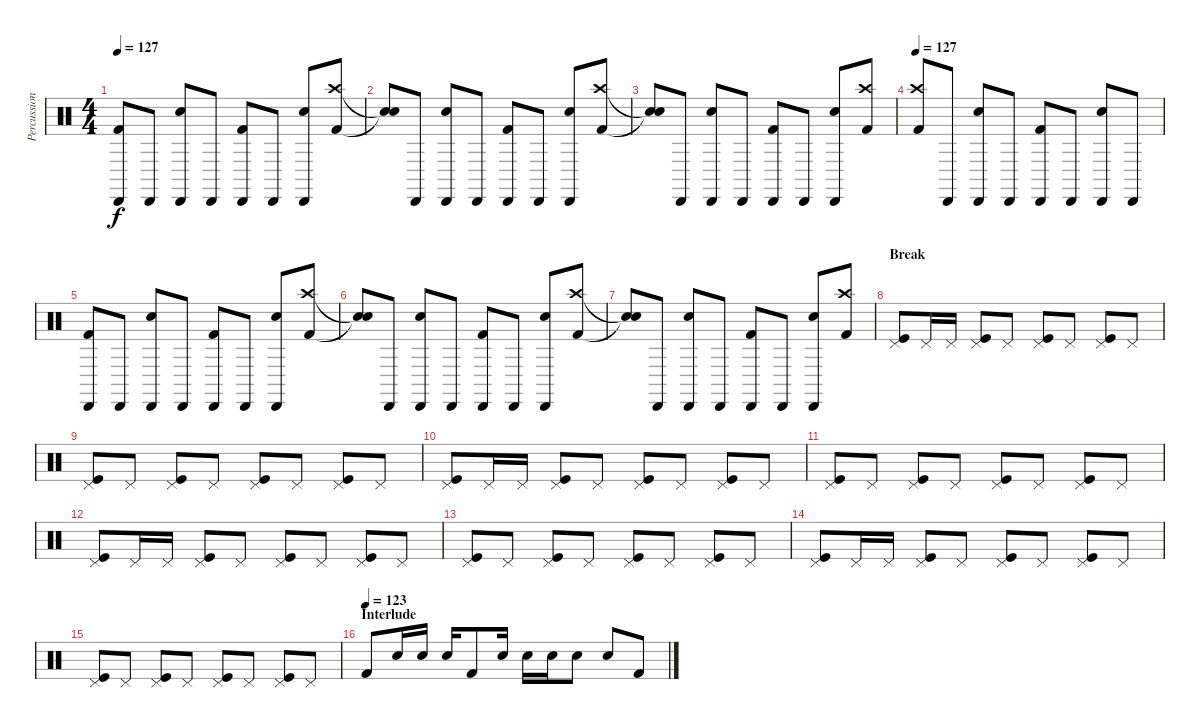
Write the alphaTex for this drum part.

\track ("Percussion" "Percussion") {instrument percussion}
\staff {score}
\articulation defaults
\ts (4 4)
\tempo 127
\clef neutral
\ks c
("Kick (hit) 2" "Cabasa (hit)").8{dy f} "Cabasa (hit)".8 ("Snare (hit) 2" "Cabasa (hit)").8 "Cabasa (hit)".8 ("Kick (hit) 2" "Cabasa (hit)").8 "Cabasa (hit)".8 ("Snare (hit) 2" "Cabasa (hit)").8 ("Kick (hit) 2" "Crash high (hit)").8 |
("Snare (hit)"{t} "Snare (hit)"{t}).8 "Cabasa (hit)".8 ("Snare (hit) 2" "Cabasa (hit)").8 "Cabasa (hit)".8 ("Kick (hit) 2" "Cabasa (hit)").8 "Cabasa (hit)".8 ("Snare (hit) 2" "Cabasa (hit)").8 ("Kick (hit) 2" "Crash high (hit)").8 |
("Snare (hit)"{t} "Snare (hit)"{t}).8 "Cabasa (hit)".8 ("Snare (hit) 2" "Cabasa (hit)").8 "Cabasa (hit)".8 ("Kick (hit) 2" "Cabasa (hit)").8 "Cabasa (hit)".8 ("Snare (hit) 2" "Cabasa (hit)").8 ("Kick (hit) 2" "Crash high (hit)").8 |
\tempo 127
("Kick (hit) 2" "Crash high (hit)").8 "Cabasa (hit)".8 ("Snare (hit) 2" "Cabasa (hit)").8 "Cabasa (hit)".8 ("Kick (hit) 2" "Cabasa (hit)").8 "Cabasa (hit)".8 ("Snare (hit) 2" "Cabasa (hit)").8 "Cabasa (hit)".8 |
("Kick (hit) 2" "Cabasa (hit)").8 "Cabasa (hit)".8 ("Snare (hit) 2" "Cabasa (hit)").8 "Cabasa (hit)".8 ("Kick (hit) 2" "Cabasa (hit)").8 "Cabasa (hit)".8 ("Snare (hit) 2" "Cabasa (hit)").8 ("Kick (hit) 2" "Crash high (hit)").8 |
("Snare (hit)"{t} "Snare (hit)"{t}).8 "Cabasa (hit)".8 ("Snare (hit) 2" "Cabasa (hit)").8 "Cabasa (hit)".8 ("Kick (hit) 2" "Cabasa (hit)").8 "Cabasa (hit)".8 ("Snare (hit) 2" "Cabasa (hit)").8 ("Kick (hit) 2" "Crash high (hit)").8 |
("Snare (hit)"{t} "Snare (hit)"{t}).8 "Cabasa (hit)".8 ("Snare (hit) 2" "Cabasa (hit)").8 "Cabasa (hit)".8 ("Kick (hit) 2" "Cabasa (hit)").8 "Cabasa (hit)".8 ("Snare (hit) 2" "Cabasa (hit)").8 ("Kick (hit) 2" "Crash high (hit)").8 |
\section ("" "Break")
("Kick (hit)" "Pedal Hi-Hat (hit)").8 "Pedal Hi-Hat (hit)".16 "Pedal Hi-Hat (hit)".16 ("Kick (hit)" "Pedal Hi-Hat (hit)").8 "Pedal Hi-Hat (hit)".8 ("Kick (hit)" "Pedal Hi-Hat (hit)").8 "Pedal Hi-Hat (hit)".8 ("Kick (hit)" "Pedal Hi-Hat (hit)").8 "Pedal Hi-Hat (hit)".8 |
("Kick (hit)" "Pedal Hi-Hat (hit)").8 "Pedal Hi-Hat (hit)".8 ("Kick (hit)" "Pedal Hi-Hat (hit)").8 "Pedal Hi-Hat (hit)".8 ("Kick (hit)" "Pedal Hi-Hat (hit)").8 "Pedal Hi-Hat (hit)".8 ("Kick (hit)" "Pedal Hi-Hat (hit)").8 "Pedal Hi-Hat (hit)".8 |
("Kick (hit)" "Pedal Hi-Hat (hit)").8 "Pedal Hi-Hat (hit)".16 "Pedal Hi-Hat (hit)".16 ("Kick (hit)" "Pedal Hi-Hat (hit)").8 "Pedal Hi-Hat (hit)".8 ("Kick (hit)" "Pedal Hi-Hat (hit)").8 "Pedal Hi-Hat (hit)".8 ("Kick (hit)" "Pedal Hi-Hat (hit)").8 "Pedal Hi-Hat (hit)".8 |
("Kick (hit)" "Pedal Hi-Hat (hit)").8 "Pedal Hi-Hat (hit)".8 ("Kick (hit)" "Pedal Hi-Hat (hit)").8 "Pedal Hi-Hat (hit)".8 ("Kick (hit)" "Pedal Hi-Hat (hit)").8 "Pedal Hi-Hat (hit)".8 ("Kick (hit)" "Pedal Hi-Hat (hit)").8 "Pedal Hi-Hat (hit)".8 |
("Kick (hit)" "Pedal Hi-Hat (hit)").8 "Pedal Hi-Hat (hit)".16 "Pedal Hi-Hat (hit)".16 ("Kick (hit)" "Pedal Hi-Hat (hit)").8 "Pedal Hi-Hat (hit)".8 ("Kick (hit)" "Pedal Hi-Hat (hit)").8 "Pedal Hi-Hat (hit)".8 ("Kick (hit)" "Pedal Hi-Hat (hit)").8 "Pedal Hi-Hat (hit)".8 |
("Kick (hit)" "Pedal Hi-Hat (hit)").8 "Pedal Hi-Hat (hit)".8 ("Kick (hit)" "Pedal Hi-Hat (hit)").8 "Pedal Hi-Hat (hit)".8 ("Kick (hit)" "Pedal Hi-Hat (hit)").8 "Pedal Hi-Hat (hit)".8 ("Kick (hit)" "Pedal Hi-Hat (hit)").8 "Pedal Hi-Hat (hit)".8 |
("Kick (hit)" "Pedal Hi-Hat (hit)").8 "Pedal Hi-Hat (hit)".16 "Pedal Hi-Hat (hit)".16 ("Kick (hit)" "Pedal Hi-Hat (hit)").8 "Pedal Hi-Hat (hit)".8 ("Kick (hit)" "Pedal Hi-Hat (hit)").8 "Pedal Hi-Hat (hit)".8 ("Kick (hit)" "Pedal Hi-Hat (hit)").8 "Pedal Hi-Hat (hit)".8 |
("Kick (hit)" "Pedal Hi-Hat (hit)").8 "Pedal Hi-Hat (hit)".8 ("Kick (hit)" "Pedal Hi-Hat (hit)").8 "Pedal Hi-Hat (hit)".8 ("Kick (hit)" "Pedal Hi-Hat (hit)").8 "Pedal Hi-Hat (hit)".8 ("Kick (hit)" "Pedal Hi-Hat (hit)").8 "Pedal Hi-Hat (hit)".8 |
\section ("" "Interlude")
\tempo (123)
"Kick (hit) 2".8 "Snare (hit) 2".16 "Snare (hit) 2".16 "Snare (hit) 2".16 "Kick (hit) 2".8 "Snare (hit) 2".16 "Snare (hit) 2".16 "Snare (hit) 2".16 "Snare (hit) 2".8 "Snare (hit) 2".8 "Kick (hit) 2".8
